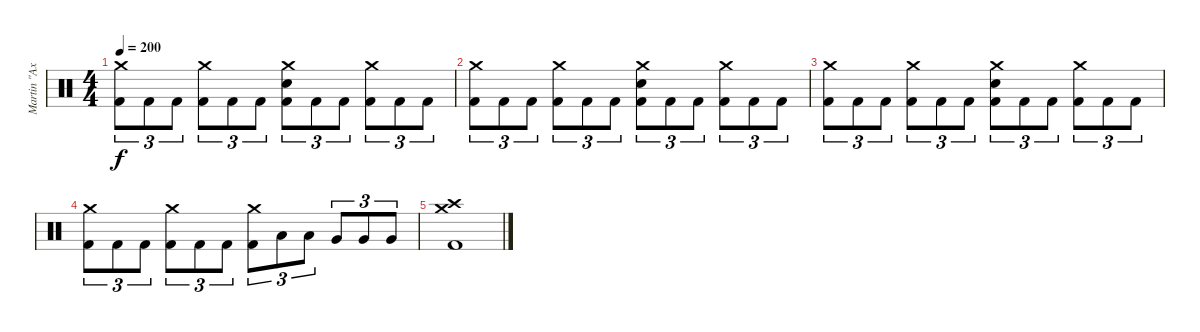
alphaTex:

\track ("Martin \"Axe\" Axenrot" "Martin \"Ax") {instrument percussion}
\staff {score}
\articulation defaults
\ts (4 4)
\tempo 200
\clef neutral
\ks c
("Crash medium (hit)" "Kick (hit) 2").8{tu (3 2) dy f} "Kick (hit) 2".8{tu (3 2)} "Kick (hit) 2".8{tu (3 2)} ("Crash medium (hit)" "Kick (hit) 2").8{tu (3 2)} "Kick (hit) 2".8{tu (3 2)} "Kick (hit) 2".8{tu (3 2)} ("Crash medium (hit)" "Electric Snare (hit)" "Kick (hit) 2").8{tu (3 2)} "Kick (hit) 2".8{tu (3 2)} "Kick (hit) 2".8{tu (3 2)} ("Crash medium (hit)" "Kick (hit) 2").8{tu (3 2)} "Kick (hit) 2".8{tu (3 2)} "Kick (hit) 2".8{tu (3 2)} |
("Crash medium (hit)" "Kick (hit) 2").8{tu (3 2)} "Kick (hit) 2".8{tu (3 2)} "Kick (hit) 2".8{tu (3 2)} ("Crash medium (hit)" "Kick (hit) 2").8{tu (3 2)} "Kick (hit) 2".8{tu (3 2)} "Kick (hit) 2".8{tu (3 2)} ("Crash medium (hit)" "Electric Snare (hit)" "Kick (hit) 2").8{tu (3 2)} "Kick (hit) 2".8{tu (3 2)} "Kick (hit) 2".8{tu (3 2)} ("Crash medium (hit)" "Kick (hit) 2").8{tu (3 2)} "Kick (hit) 2".8{tu (3 2)} "Kick (hit) 2".8{tu (3 2)} |
("Crash medium (hit)" "Kick (hit) 2").8{tu (3 2)} "Kick (hit) 2".8{tu (3 2)} "Kick (hit) 2".8{tu (3 2)} ("Crash medium (hit)" "Kick (hit) 2").8{tu (3 2)} "Kick (hit) 2".8{tu (3 2)} "Kick (hit) 2".8{tu (3 2)} ("Crash medium (hit)" "Electric Snare (hit)" "Kick (hit) 2").8{tu (3 2)} "Kick (hit) 2".8{tu (3 2)} "Kick (hit) 2".8{tu (3 2)} ("Crash medium (hit)" "Kick (hit) 2").8{tu (3 2)} "Kick (hit) 2".8{tu (3 2)} "Kick (hit) 2".8{tu (3 2)} |
("Crash medium (hit)" "Kick (hit) 2").8{tu (3 2)} "Kick (hit) 2".8{tu (3 2)} "Kick (hit) 2".8{tu (3 2)} ("Crash medium (hit)" "Kick (hit) 2").8{tu (3 2)} "Kick (hit) 2".8{tu (3 2)} "Kick (hit) 2".8{tu (3 2)} ("Crash medium (hit)" "Kick (hit) 2").8{tu (3 2)} "Low Tom (hit)".8{tu (3 2)} "Low Tom (hit)".8{tu (3 2)} "Very Low Tom (hit)".8{tu (3 2)} "Very Low Tom (hit)".8{tu (3 2)} "Very Low Tom (hit)".8{tu (3 2)} |
("Crash high (hit)" "Crash medium (hit)" "Kick (hit) 2").1
